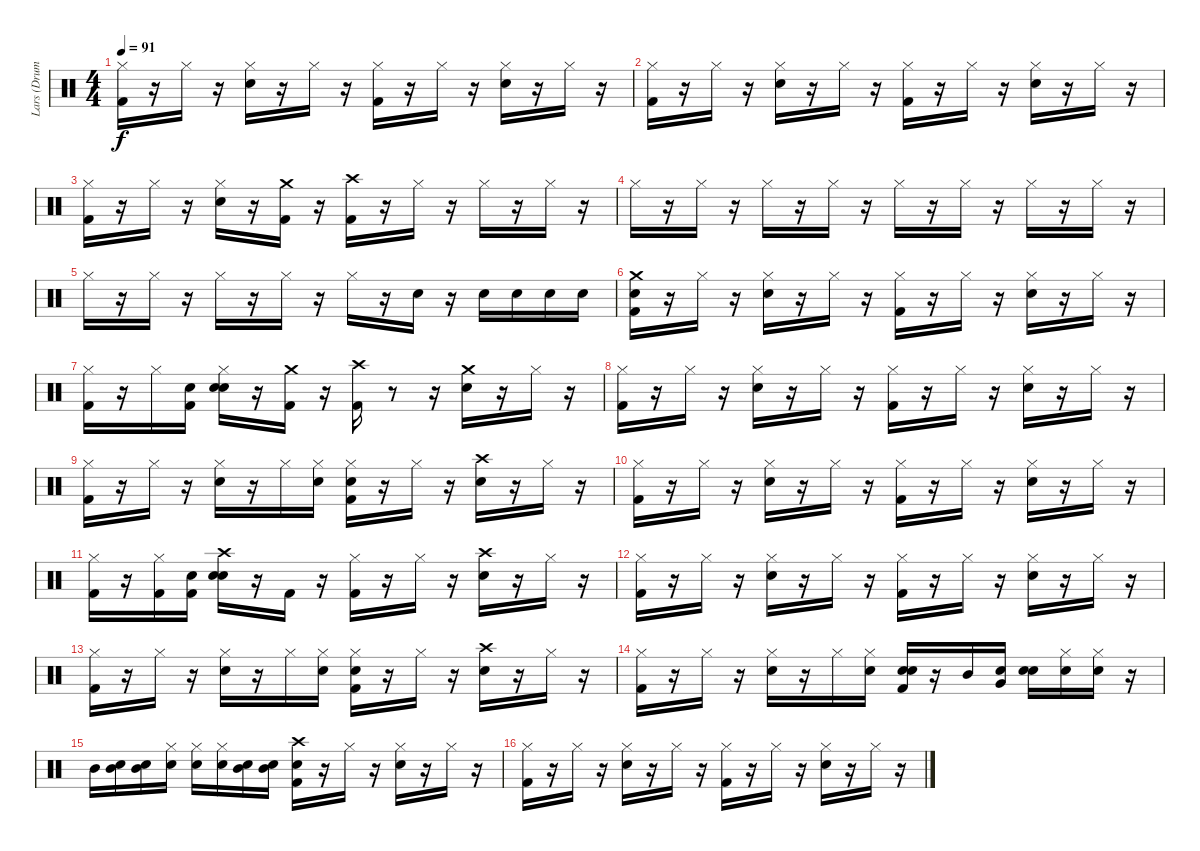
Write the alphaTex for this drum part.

\track ("Lars (Drums)" "Lars (Drum") {instrument percussion}
\staff {score}
\articulation defaults
\ts (4 4)
\tempo 91
\clef neutral
\ks c
("Kick (hit) 2" "Hi-Hat (closed)").16{dy f} r.16 "Hi-Hat (closed)".16 r.16 ("Snare (hit) 2" "Hi-Hat (closed)").16 r.16 "Hi-Hat (closed)".16 r.16 ("Kick (hit) 2" "Hi-Hat (closed)").16 r.16 "Hi-Hat (closed)".16 r.16 ("Snare (hit) 2" "Hi-Hat (closed)").16 r.16 "Hi-Hat (closed)".16 r.16 |
("Kick (hit) 2" "Hi-Hat (closed)").16 r.16 "Hi-Hat (closed)".16 r.16 ("Snare (hit) 2" "Hi-Hat (closed)").16 r.16 "Hi-Hat (closed)".16 r.16 ("Kick (hit) 2" "Hi-Hat (closed)").16 r.16 "Hi-Hat (closed)".16 r.16 ("Snare (hit) 2" "Hi-Hat (closed)").16 r.16 "Hi-Hat (closed)".16 r.16 |
("Kick (hit) 2" "Hi-Hat (closed)").16 r.16 "Hi-Hat (closed)".16 r.16 ("Snare (hit) 2" "Hi-Hat (closed)").16 r.16 ("Kick (hit) 2" "Crash medium (hit)").16 r.16 ("Kick (hit) 2" "Crash high (hit)").16 r.16 "Hi-Hat (closed)".16 r.16 "Hi-Hat (closed)".16 r.16 "Hi-Hat (closed)".16 r.16 |
"Hi-Hat (closed)".16 r.16 "Hi-Hat (closed)".16 r.16 "Hi-Hat (closed)".16 r.16 "Hi-Hat (closed)".16 r.16 "Hi-Hat (closed)".16 r.16 "Hi-Hat (closed)".16 r.16 "Hi-Hat (closed)".16 r.16 "Hi-Hat (closed)".16 r.16 |
"Hi-Hat (closed)".16 r.16 "Hi-Hat (closed)".16 r.16 "Hi-Hat (closed)".16 r.16 "Hi-Hat (closed)".16 r.16 "Hi-Hat (closed)".16 r.16 "Snare (hit) 2".16 r.16 "Snare (hit) 2".16 "Snare (hit) 2".16 "Snare (hit) 2".16 "Snare (hit) 2".16 |
("Kick (hit) 2" "Snare (hit) 2" "Crash medium (hit)").16 r.16 "Hi-Hat (closed)".16 r.16 ("Snare (hit) 2" "Hi-Hat (closed)").16 r.16 "Hi-Hat (closed)".16 r.16 ("Kick (hit) 2" "Hi-Hat (closed)").16 r.16 "Hi-Hat (closed)".16 r.16 ("Snare (hit) 2" "Hi-Hat (closed)").16 r.16 "Hi-Hat (closed)".16 r.16 |
("Kick (hit) 2" "Hi-Hat (closed)").16 r.16 "Hi-Hat (closed)".16 ("Snare (hit)" "Kick (hit) 2").16 ("Snare (hit)" "Snare (hit) 2" "Hi-Hat (closed)").16 r.16 ("Kick (hit) 2" "Crash medium (hit)").16 r.16 ("Kick (hit) 2" "Crash high (hit)").16 r.8 r.16 ("Snare (hit) 2" "Crash medium (hit)").16 r.16 "Hi-Hat (closed)".16 r.16 |
("Kick (hit) 2" "Hi-Hat (closed)").16 r.16 "Hi-Hat (closed)".16 r.16 ("Snare (hit) 2" "Hi-Hat (closed)").16 r.16 "Hi-Hat (closed)".16 r.16 ("Kick (hit) 2" "Hi-Hat (closed)").16 r.16 "Hi-Hat (closed)".16 r.16 ("Snare (hit) 2" "Hi-Hat (closed)").16 r.16 "Hi-Hat (closed)".16 r.16 |
("Kick (hit) 2" "Hi-Hat (closed)").16 r.16 "Hi-Hat (closed)".16 r.16 ("Snare (hit) 2" "Hi-Hat (closed)").16 r.16 "Hi-Hat (closed)".16 ("Snare (hit)" "Hi-Hat (closed)").16 ("Snare (hit)" "Kick (hit) 2" "Hi-Hat (closed)").16 r.16 "Hi-Hat (closed)".16 r.16 ("Snare (hit) 2" "Crash high (hit)").16 r.16 "Hi-Hat (closed)".16 r.16 |
("Kick (hit) 2" "Hi-Hat (closed)").16 r.16 "Hi-Hat (closed)".16 r.16 ("Snare (hit) 2" "Hi-Hat (closed)").16 r.16 "Hi-Hat (closed)".16 r.16 ("Kick (hit) 2" "Hi-Hat (closed)").16 r.16 "Hi-Hat (closed)".16 r.16 ("Snare (hit) 2" "Hi-Hat (closed)").16 r.16 "Hi-Hat (closed)".16 r.16 |
("Kick (hit) 2" "Hi-Hat (closed)").16 r.16 ("Kick (hit) 2" "Hi-Hat (closed)").16 ("Snare (hit)" "Kick (hit) 2").16 ("Snare (hit)" "Snare (hit) 2" "Crash high (hit)").16 r.16 "Kick (hit) 2".16 r.16 ("Kick (hit) 2" "Hi-Hat (closed)").16 r.16 "Hi-Hat (closed)".16 r.16 ("Snare (hit) 2" "Crash high (hit)").16 r.16 "Hi-Hat (closed)".16 r.16 |
("Kick (hit) 2" "Hi-Hat (closed)").16 r.16 "Hi-Hat (closed)".16 r.16 ("Snare (hit) 2" "Hi-Hat (closed)").16 r.16 "Hi-Hat (closed)".16 r.16 ("Kick (hit) 2" "Hi-Hat (closed)").16 r.16 "Hi-Hat (closed)".16 r.16 ("Snare (hit) 2" "Hi-Hat (closed)").16 r.16 "Hi-Hat (closed)".16 r.16 |
("Kick (hit) 2" "Hi-Hat (closed)").16 r.16 "Hi-Hat (closed)".16 r.16 ("Snare (hit) 2" "Hi-Hat (closed)").16 r.16 "Hi-Hat (closed)".16 ("Snare (hit)" "Hi-Hat (closed)").16 ("Snare (hit)" "Kick (hit) 2" "Hi-Hat (closed)").16 r.16 "Hi-Hat (closed)".16 r.16 ("Snare (hit) 2" "Crash high (hit)").16 r.16 "Hi-Hat (closed)".16 r.16 |
("Kick (hit) 2" "Hi-Hat (closed)").16 r.16 "Hi-Hat (closed)".16 r.16 ("Snare (hit) 2" "Hi-Hat (closed)").16 r.16 "Hi-Hat (closed)".16 ("Snare (hit)" "Hi-Hat (closed)").16 ("Snare (hit)" "Kick (hit) 2" "Snare (hit) 2").16 r.16 "Mid Tom (hit)".16 ("Snare (hit)" "Very Low Tom (hit)").16 ("Snare (hit)" "Snare (hit) 2").16 ("Snare (hit)" "Hi-Hat (closed)").16 ("Snare (hit)" "Hi-Hat (closed)").16 r.16 |
"Mid Tom (hit)".16 ("Snare (hit)" "Mid Tom (hit)").16 ("Snare (hit)" "Mid Tom (hit)").16 ("Snare (hit)" "Hi-Hat (closed)").16 ("Snare (hit)" "Hi-Hat (closed)").16 ("Snare (hit)" "Hi-Hat (closed)").16 ("Snare (hit)" "Mid Tom (hit)").16 ("Snare (hit)" "Mid Tom (hit)").16 ("Snare (hit)" "Kick (hit) 2" "Crash high (hit)").16 r.16 "Hi-Hat (closed)".16 r.16 ("Snare (hit) 2" "Hi-Hat (closed)").16 r.16 "Hi-Hat (closed)".16 r.16 |
("Kick (hit) 2" "Hi-Hat (closed)").16 r.16 "Hi-Hat (closed)".16 r.16 ("Snare (hit) 2" "Hi-Hat (closed)").16 r.16 "Hi-Hat (closed)".16 r.16 ("Kick (hit) 2" "Hi-Hat (closed)").16 r.16 "Hi-Hat (closed)".16 r.16 ("Snare (hit) 2" "Hi-Hat (closed)").16 r.16 "Hi-Hat (closed)".16 r.16
